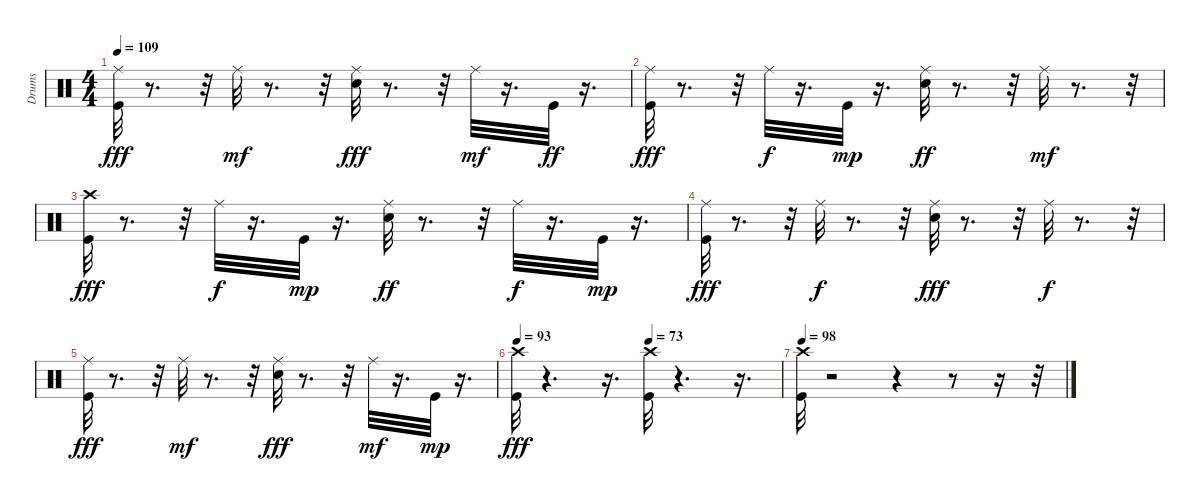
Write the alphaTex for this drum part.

\track ("Drums" "Drums") {instrument percussion}
\staff {score}
\articulation defaults
\ts (4 4)
\tempo 109
\clef neutral
\ks c
("Ride (middle)" "Kick (hit)").32{dy fff} r.8{d} r.32 "Ride (middle)".32{dy mf} r.8{d} r.32 ("Ride (middle)" "Snare (hit) 2").32{dy fff} r.8{d} r.32 "Ride (middle)".32{dy mf} r.16{d} "Kick (hit)".32{dy ff} r.16{d} |
("Ride (middle)" "Kick (hit)").32{dy fff} r.8{d} r.32 "Ride (middle)".32{dy f} r.16{d} "Kick (hit)".32{dy mp} r.16{d} ("Ride (middle)" "Snare (hit) 2").32{dy ff} r.8{d} r.32 "Ride (middle)".32{dy mf} r.8{d} r.32 |
("Crash high (hit)" "Kick (hit)").32{dy fff} r.8{d} r.32 "Ride (middle)".32{dy f} r.16{d} "Kick (hit)".32{dy mp} r.16{d} ("Ride (middle)" "Snare (hit) 2").32{dy ff} r.8{d} r.32 "Ride (middle)".32{dy f} r.16{d} "Kick (hit)".32{dy mp} r.16{d} |
("Ride (middle)" "Kick (hit)").32{dy fff} r.8{d} r.32 "Ride (middle)".32{dy f} r.8{d} r.32 ("Ride (middle)" "Snare (hit) 2").32{dy fff} r.8{d} r.32 "Ride (middle)".32{dy f} r.8{d} r.32 |
("Ride (middle)" "Kick (hit)").32{dy fff} r.8{d} r.32 "Ride (middle)".32{dy mf} r.8{d} r.32 ("Ride (middle)" "Snare (hit) 2").32{dy fff} r.8{d} r.32 "Ride (middle)".32{dy mf} r.16{d} "Kick (hit)".32{dy mp} r.16{d} |
\tempo 93
\tempo (73 0.5)
("Crash high (hit)" "Kick (hit)").32{dy fff} r.4{d} r.16{d} ("Crash high (hit)" "Kick (hit)").32 r.4{d} r.16{d} |
\tempo 98
("Crash high (hit)" "Kick (hit)").32 r.2 r.4 r.8 r.16 r.32
